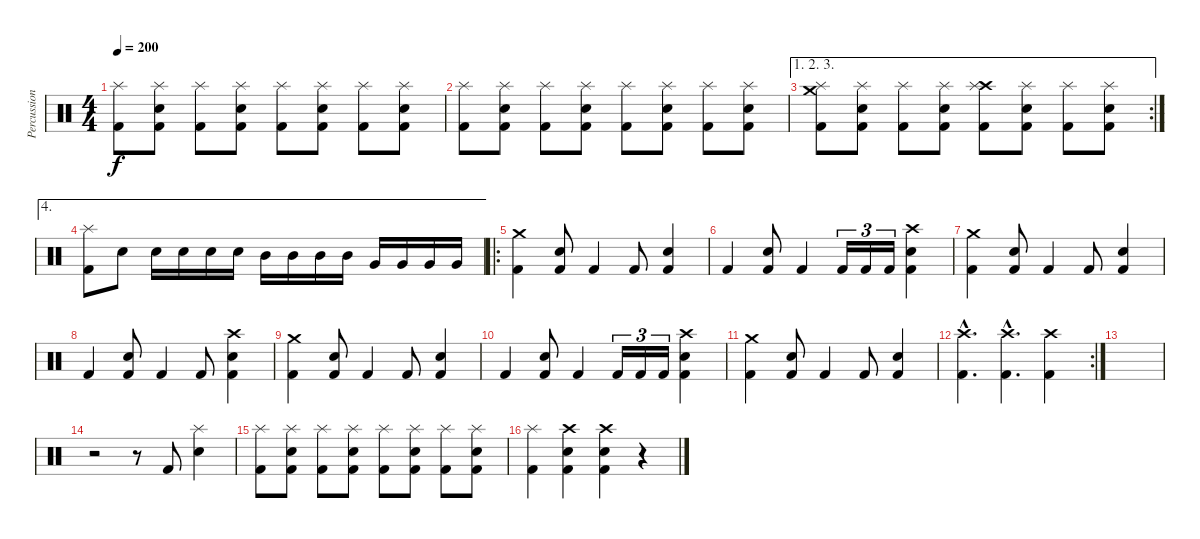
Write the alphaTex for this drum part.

\track ("Percussion" "Percussion") {instrument percussion}
\staff {score}
\articulation defaults
\ts (4 4)
\tempo 200
\clef neutral
\ks c
("Splash (hit)" "Kick (hit) 2").8{dy f} ("Splash (hit)" "Snare (hit) 2" "Kick (hit) 2").8 ("Splash (hit)" "Kick (hit) 2").8 ("Splash (hit)" "Snare (hit) 2" "Kick (hit) 2").8 ("Splash (hit)" "Kick (hit) 2").8 ("Splash (hit)" "Snare (hit) 2" "Kick (hit) 2").8 ("Splash (hit)" "Kick (hit) 2").8 ("Splash (hit)" "Snare (hit) 2" "Kick (hit) 2").8 |
("Splash (hit)" "Kick (hit) 2").8 ("Splash (hit)" "Snare (hit) 2" "Kick (hit) 2").8 ("Splash (hit)" "Kick (hit) 2").8 ("Splash (hit)" "Snare (hit) 2" "Kick (hit) 2").8 ("Splash (hit)" "Kick (hit) 2").8 ("Splash (hit)" "Snare (hit) 2" "Kick (hit) 2").8 ("Splash (hit)" "Kick (hit) 2").8 ("Splash (hit)" "Snare (hit) 2" "Kick (hit) 2").8 |
\ae (1 2 3)
\rc 2
("Crash medium (hit)" "Splash (hit)" "Kick (hit) 2").8 ("Splash (hit)" "Snare (hit) 2" "Kick (hit) 2").8 ("Splash (hit)" "Kick (hit) 2").8 ("Splash (hit)" "Snare (hit) 2" "Kick (hit) 2").8 ("Crash high (hit)" "Splash (hit)" "Kick (hit) 2").8 ("Splash (hit)" "Snare (hit) 2" "Kick (hit) 2").8 ("Splash (hit)" "Kick (hit) 2").8 ("Splash (hit)" "Snare (hit) 2" "Kick (hit) 2").8 |
\ae 4
("Splash (hit)" "Kick (hit) 2").8 "Snare (hit) 2".8 "Snare (hit) 2".16 "Snare (hit) 2".16 "Snare (hit) 2".16 "Snare (hit) 2".16 "Mid Tom (hit)".16 "Mid Tom (hit)".16 "Mid Tom (hit)".16 "Mid Tom (hit)".16 "Very Low Tom (hit)".16 "Very Low Tom (hit)".16 "Very Low Tom (hit)".16 "Very Low Tom (hit)".16 |
\ro
("Crash medium (hit)" "Kick (hit) 2").4 ("Snare (hit) 2" "Kick (hit) 2").8 "Kick (hit) 2".4 "Kick (hit) 2".8 ("Snare (hit) 2" "Kick (hit) 2").4 |
"Kick (hit) 2".4 ("Snare (hit) 2" "Kick (hit) 2").8 "Kick (hit) 2".4 "Kick (hit) 2".16{tu (3 2)} "Kick (hit) 2".16{tu (3 2)} "Kick (hit) 2".16{tu (3 2)} ("Crash high (hit)" "Snare (hit) 2" "Kick (hit) 2").4 |
("Crash medium (hit)" "Kick (hit) 2").4 ("Snare (hit) 2" "Kick (hit) 2").8 "Kick (hit) 2".4 "Kick (hit) 2".8 ("Snare (hit) 2" "Kick (hit) 2").4 |
"Kick (hit) 2".4 ("Snare (hit) 2" "Kick (hit) 2").8 "Kick (hit) 2".4 "Kick (hit) 2".8 ("Crash high (hit)" "Snare (hit) 2" "Kick (hit) 2").4 |
("Crash medium (hit)" "Kick (hit) 2").4 ("Snare (hit) 2" "Kick (hit) 2").8 "Kick (hit) 2".4 "Kick (hit) 2".8 ("Snare (hit) 2" "Kick (hit) 2").4 |
"Kick (hit) 2".4 ("Snare (hit) 2" "Kick (hit) 2").8 "Kick (hit) 2".4 "Kick (hit) 2".16{tu (3 2)} "Kick (hit) 2".16{tu (3 2)} "Kick (hit) 2".16{tu (3 2)} ("Crash high (hit)" "Snare (hit) 2" "Kick (hit) 2").4 |
("Crash medium (hit)" "Kick (hit) 2").4 ("Snare (hit) 2" "Kick (hit) 2").8 "Kick (hit) 2".4 "Kick (hit) 2".8 ("Snare (hit) 2" "Kick (hit) 2").4 |
\rc 2
("Crash high (hit)"{hac} "Kick (hit) 2"{hac}).4{d} ("Crash high (hit)"{hac} "Kick (hit) 2"{hac}).4{d} ("Crash high (hit)" "Kick (hit) 2").4 |
|
r.2 r.8 "Kick (hit) 2".8 ("Splash (hit)" "Snare (hit) 2").4 |
("Splash (hit)" "Kick (hit) 2").8 ("Splash (hit)" "Snare (hit) 2" "Kick (hit) 2").8 ("Splash (hit)" "Kick (hit) 2").8 ("Splash (hit)" "Snare (hit) 2" "Kick (hit) 2").8 ("Splash (hit)" "Kick (hit) 2").8 ("Splash (hit)" "Snare (hit) 2" "Kick (hit) 2").8 ("Splash (hit)" "Kick (hit) 2").8 ("Splash (hit)" "Snare (hit) 2" "Kick (hit) 2").8 |
("Splash (hit)" "Kick (hit) 2").4 ("Crash high (hit)" "Snare (hit) 2" "Kick (hit) 2").4 ("Crash high (hit)" "Snare (hit) 2" "Kick (hit) 2").4 r.4
